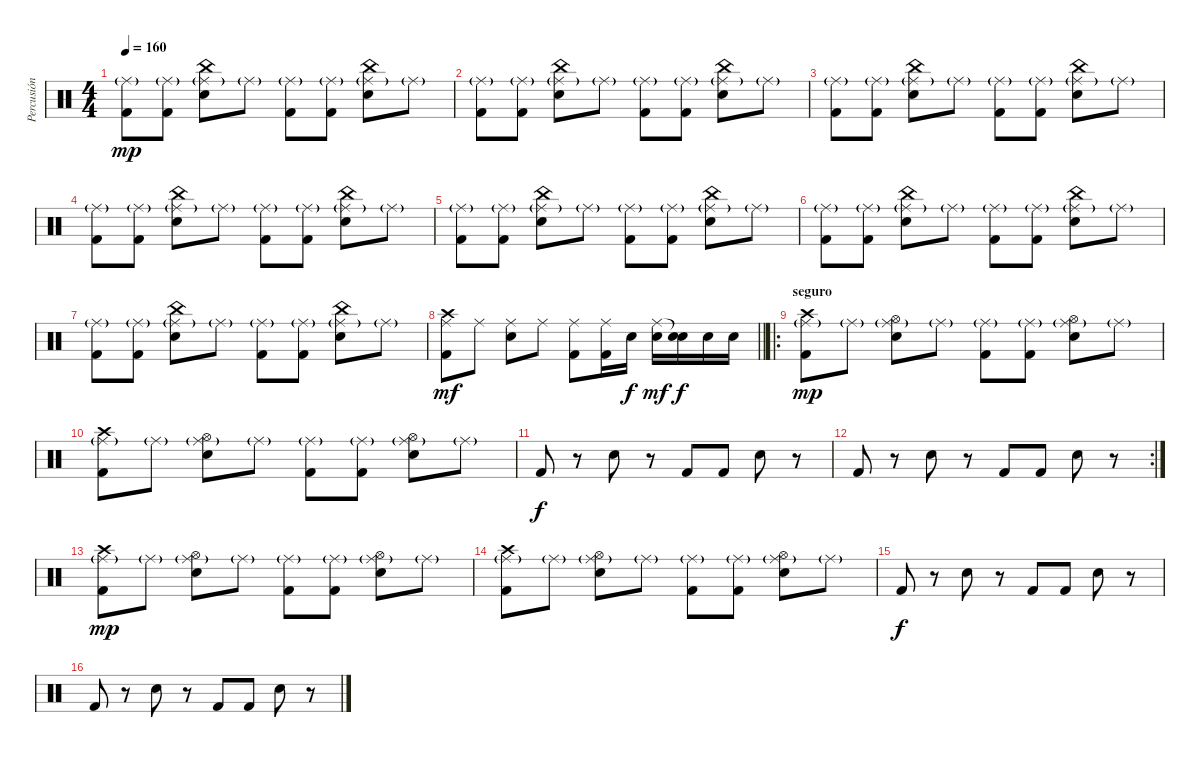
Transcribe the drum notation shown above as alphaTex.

\track ("Percusión" "Percusión") {instrument percussion}
\staff {score}
\articulation defaults
\ts (4 4)
\tempo 160
\clef neutral
\ks c
("Ride (middle)"{g} "Kick (hit) 2").8{dy mp} ("Ride (middle)"{g} "Kick (hit) 2").8 ("China (hit)" "Ride (middle)"{g} "Electric Snare (hit)").8 "Ride (middle)"{g}.8 ("Ride (middle)"{g} "Kick (hit) 2").8 ("Ride (middle)"{g} "Kick (hit) 2").8 ("China (hit)" "Ride (middle)"{g} "Electric Snare (hit)").8 "Ride (middle)"{g}.8 |
("Ride (middle)"{g} "Kick (hit) 2").8 ("Ride (middle)"{g} "Kick (hit) 2").8 ("China (hit)" "Ride (middle)"{g} "Electric Snare (hit)").8 "Ride (middle)"{g}.8 ("Ride (middle)"{g} "Kick (hit) 2").8 ("Ride (middle)"{g} "Kick (hit) 2").8 ("China (hit)" "Ride (middle)"{g} "Electric Snare (hit)").8 "Ride (middle)"{g}.8 |
("Ride (middle)"{g} "Kick (hit) 2").8 ("Ride (middle)"{g} "Kick (hit) 2").8 ("China (hit)" "Ride (middle)"{g} "Electric Snare (hit)").8 "Ride (middle)"{g}.8 ("Ride (middle)"{g} "Kick (hit) 2").8 ("Ride (middle)"{g} "Kick (hit) 2").8 ("China (hit)" "Ride (middle)"{g} "Electric Snare (hit)").8 "Ride (middle)"{g}.8 |
("Ride (middle)"{g} "Kick (hit) 2").8 ("Ride (middle)"{g} "Kick (hit) 2").8 ("China (hit)" "Ride (middle)"{g} "Electric Snare (hit)").8 "Ride (middle)"{g}.8 ("Ride (middle)"{g} "Kick (hit) 2").8 ("Ride (middle)"{g} "Kick (hit) 2").8 ("China (hit)" "Ride (middle)"{g} "Electric Snare (hit)").8 "Ride (middle)"{g}.8 |
("Ride (middle)"{g} "Kick (hit) 2").8 ("Ride (middle)"{g} "Kick (hit) 2").8 ("China (hit)" "Ride (middle)"{g} "Electric Snare (hit)").8 "Ride (middle)"{g}.8 ("Ride (middle)"{g} "Kick (hit) 2").8 ("Ride (middle)"{g} "Kick (hit) 2").8 ("China (hit)" "Ride (middle)"{g} "Electric Snare (hit)").8 "Ride (middle)"{g}.8 |
("Ride (middle)"{g} "Kick (hit) 2").8 ("Ride (middle)"{g} "Kick (hit) 2").8 ("China (hit)" "Ride (middle)"{g} "Electric Snare (hit)").8 "Ride (middle)"{g}.8 ("Ride (middle)"{g} "Kick (hit) 2").8 ("Ride (middle)"{g} "Kick (hit) 2").8 ("China (hit)" "Ride (middle)"{g} "Electric Snare (hit)").8 "Ride (middle)"{g}.8 |
("Ride (middle)"{g} "Kick (hit) 2").8 ("Ride (middle)"{g} "Kick (hit) 2").8 ("China (hit)" "Ride (middle)"{g} "Electric Snare (hit)").8 "Ride (middle)"{g}.8 ("Ride (middle)"{g} "Kick (hit) 2").8 ("Ride (middle)"{g} "Kick (hit) 2").8 ("China (hit)" "Ride (middle)"{g} "Electric Snare (hit)").8 "Ride (middle)"{g}.8 |
\barLineRight lightlight
("Crash high (hit)" "Ride (middle)" "Kick (hit) 2").8{dy mf} "Ride (middle)".8 ("Ride (middle)" "Electric Snare (hit)").8 "Ride (middle)".8 ("Ride (middle)" "Kick (hit) 2").8 ("Ride (middle)" "Kick (hit) 2").16 "Electric Snare (hit)".16{dy f} ("Ride (middle)" "Electric Snare (hit)").16{dy mf} ("Snare (hit)"{t} "Electric Snare (hit)").16{dy f} "Electric Snare (hit)".16 "Electric Snare (hit)".16 |
\ro
\section ("" "seguro")
("Crash high (hit)" "Ride (middle)"{g} "Kick (hit) 2").8{dy mp} "Ride (middle)"{g}.8 ("Hi-Hat (open)" "Ride (middle)"{g} "Electric Snare (hit)").8 "Ride (middle)"{g}.8 ("Ride (middle)"{g} "Kick (hit) 2").8 ("Ride (middle)"{g} "Kick (hit) 2").8 ("Hi-Hat (open)" "Ride (middle)"{g} "Electric Snare (hit)").8 "Ride (middle)"{g}.8 |
("Crash high (hit)" "Ride (middle)"{g} "Kick (hit) 2").8 "Ride (middle)"{g}.8 ("Hi-Hat (open)" "Ride (middle)"{g} "Electric Snare (hit)").8 "Ride (middle)"{g}.8 ("Ride (middle)"{g} "Kick (hit) 2").8 ("Ride (middle)"{g} "Kick (hit) 2").8 ("Hi-Hat (open)" "Ride (middle)"{g} "Electric Snare (hit)").8 "Ride (middle)"{g}.8 |
"Kick (hit) 2".8{dy f} r.8 "Electric Snare (hit)".8 r.8 "Kick (hit) 2".8 "Kick (hit) 2".8 "Electric Snare (hit)".8 r.8 |
\rc 2 "Kick (hit) 2".8
r.8 "Electric Snare (hit)".8 r.8 "Kick (hit) 2".8 "Kick (hit) 2".8 "Electric Snare (hit)".8 r.8 |
("Crash high (hit)" "Ride (middle)"{g} "Kick (hit) 2").8{dy mp} "Ride (middle)"{g}.8 ("Hi-Hat (open)" "Ride (middle)"{g} "Electric Snare (hit)").8 "Ride (middle)"{g}.8 ("Ride (middle)"{g} "Kick (hit) 2").8 ("Ride (middle)"{g} "Kick (hit) 2").8 ("Hi-Hat (open)" "Ride (middle)"{g} "Electric Snare (hit)").8 "Ride (middle)"{g}.8 |
("Crash high (hit)" "Ride (middle)"{g} "Kick (hit) 2").8 "Ride (middle)"{g}.8 ("Hi-Hat (open)" "Ride (middle)"{g} "Electric Snare (hit)").8 "Ride (middle)"{g}.8 ("Ride (middle)"{g} "Kick (hit) 2").8 ("Ride (middle)"{g} "Kick (hit) 2").8 ("Hi-Hat (open)" "Ride (middle)"{g} "Electric Snare (hit)").8 "Ride (middle)"{g}.8 |
"Kick (hit) 2".8{dy f} r.8 "Electric Snare (hit)".8 r.8 "Kick (hit) 2".8 "Kick (hit) 2".8 "Electric Snare (hit)".8 r.8 |
"Kick (hit) 2".8 r.8 "Electric Snare (hit)".8 r.8 "Kick (hit) 2".8 "Kick (hit) 2".8 "Electric Snare (hit)".8 r.8
